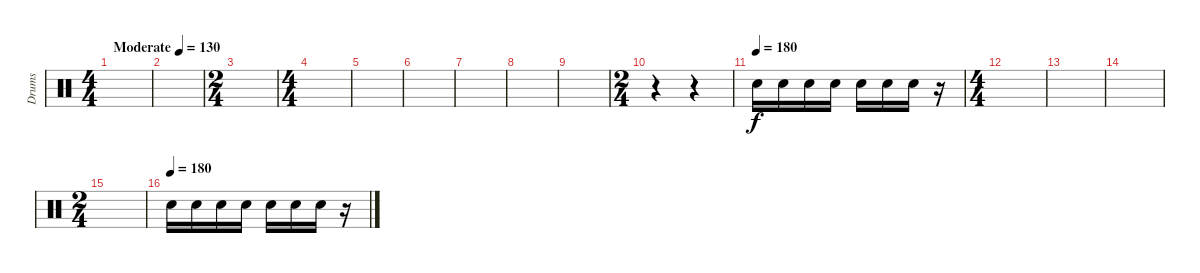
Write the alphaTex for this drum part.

\track ("Drums" "Drums") {instrument percussion}
\staff {score}
\articulation defaults
\ts (4 4)
\tempo (130 "Moderate")
\clef neutral
\ks c
|
|
\ts (2 4)
|
\ts (4 4)
|
|
|
|
|
|
\ts (2 4)
r.4 r.4 |
\tempo (180)
"Electric Snare (hit)".16 "Electric Snare (hit)".16 "Electric Snare (hit)".16 "Electric Snare (hit)".16 "Electric Snare (hit)".16 "Electric Snare (hit)".16 "Electric Snare (hit)".16 r.16 |
\ts (4 4)
|
|
|
\ts (2 4)
|
\tempo (180)
"Electric Snare (hit)".16 "Electric Snare (hit)".16 "Electric Snare (hit)".16 "Electric Snare (hit)".16 "Electric Snare (hit)".16 "Electric Snare (hit)".16 "Electric Snare (hit)".16 r.16
